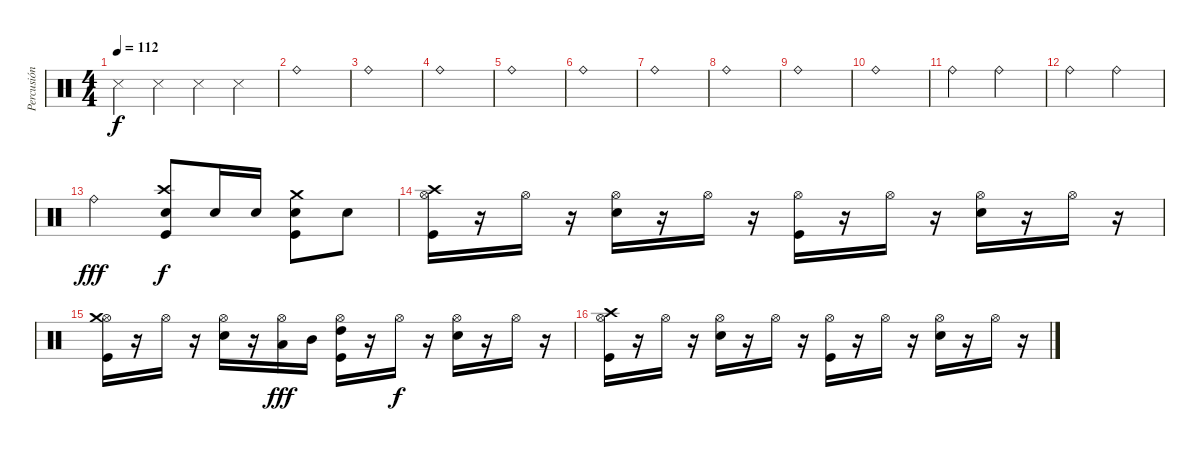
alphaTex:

\track ("Percusión" "Percusión") {instrument percussion}
\staff {score}
\articulation defaults
\ts (4 4)
\tempo 112
\clef neutral
\ks c "Snare (side stick) 3".4{dy f} "Snare (side stick) 3".4 "Snare (side stick) 3".4 "Snare (side stick) 3".4
|
"Ride (bell)".1 |
"Ride (bell)".1 |
"Ride (bell)".1 |
"Ride (bell)".1 |
"Ride (bell)".1 |
"Ride (bell)".1 |
"Ride (bell)".1 |
"Ride (bell)".1 |
"Ride (bell)".1 |
"Ride (bell)".2 "Ride (bell)".2 |
"Ride (bell)".2 "Ride (bell)".2 |
"Ride (bell)".2{dy fff} ("Snare (hit) 2" "Crash high (hit)" "Kick (hit)").8{dy f} "Snare (hit) 2".16 "Snare (hit) 2".16 ("Snare (hit) 2" "Crash medium (hit)" "Kick (hit)").8 "Snare (hit) 2".8 |
("Hi-Hat (open)" "Crash high (hit)" "Kick (hit)").16 r.16 "Hi-Hat (open)".16 r.16 ("Hi-Hat (open)" "Snare (hit) 2").16 r.16 "Hi-Hat (open)".16 r.16 ("Hi-Hat (open)" "Kick (hit)").16 r.16 "Hi-Hat (open)".16 r.16 ("Hi-Hat (open)" "Snare (hit) 2").16 r.16 "Hi-Hat (open)".16 r.16 |
("Hi-Hat (open)" "Crash medium (hit)" "Kick (hit)").16 r.16 "Hi-Hat (open)".16 r.16 ("Hi-Hat (open)" "Snare (hit) 2").16 r.16 ("Hi-Hat (open)" "Low Tom (hit)").16{dy fff} "Mid Tom (hit)".16 ("Hi-Hat (open)" "High Tom (hit)" "Kick (hit)").16 r.16 "Hi-Hat (open)".16{dy f} r.16 ("Hi-Hat (open)" "Snare (hit) 2").16 r.16 "Hi-Hat (open)".16 r.16 |
("Hi-Hat (open)" "Crash high (hit)" "Kick (hit)").16 r.16 "Hi-Hat (open)".16 r.16 ("Hi-Hat (open)" "Snare (hit) 2").16 r.16 "Hi-Hat (open)".16 r.16 ("Hi-Hat (open)" "Kick (hit)").16 r.16 "Hi-Hat (open)".16 r.16 ("Hi-Hat (open)" "Snare (hit) 2").16 r.16 "Hi-Hat (open)".16 r.16
